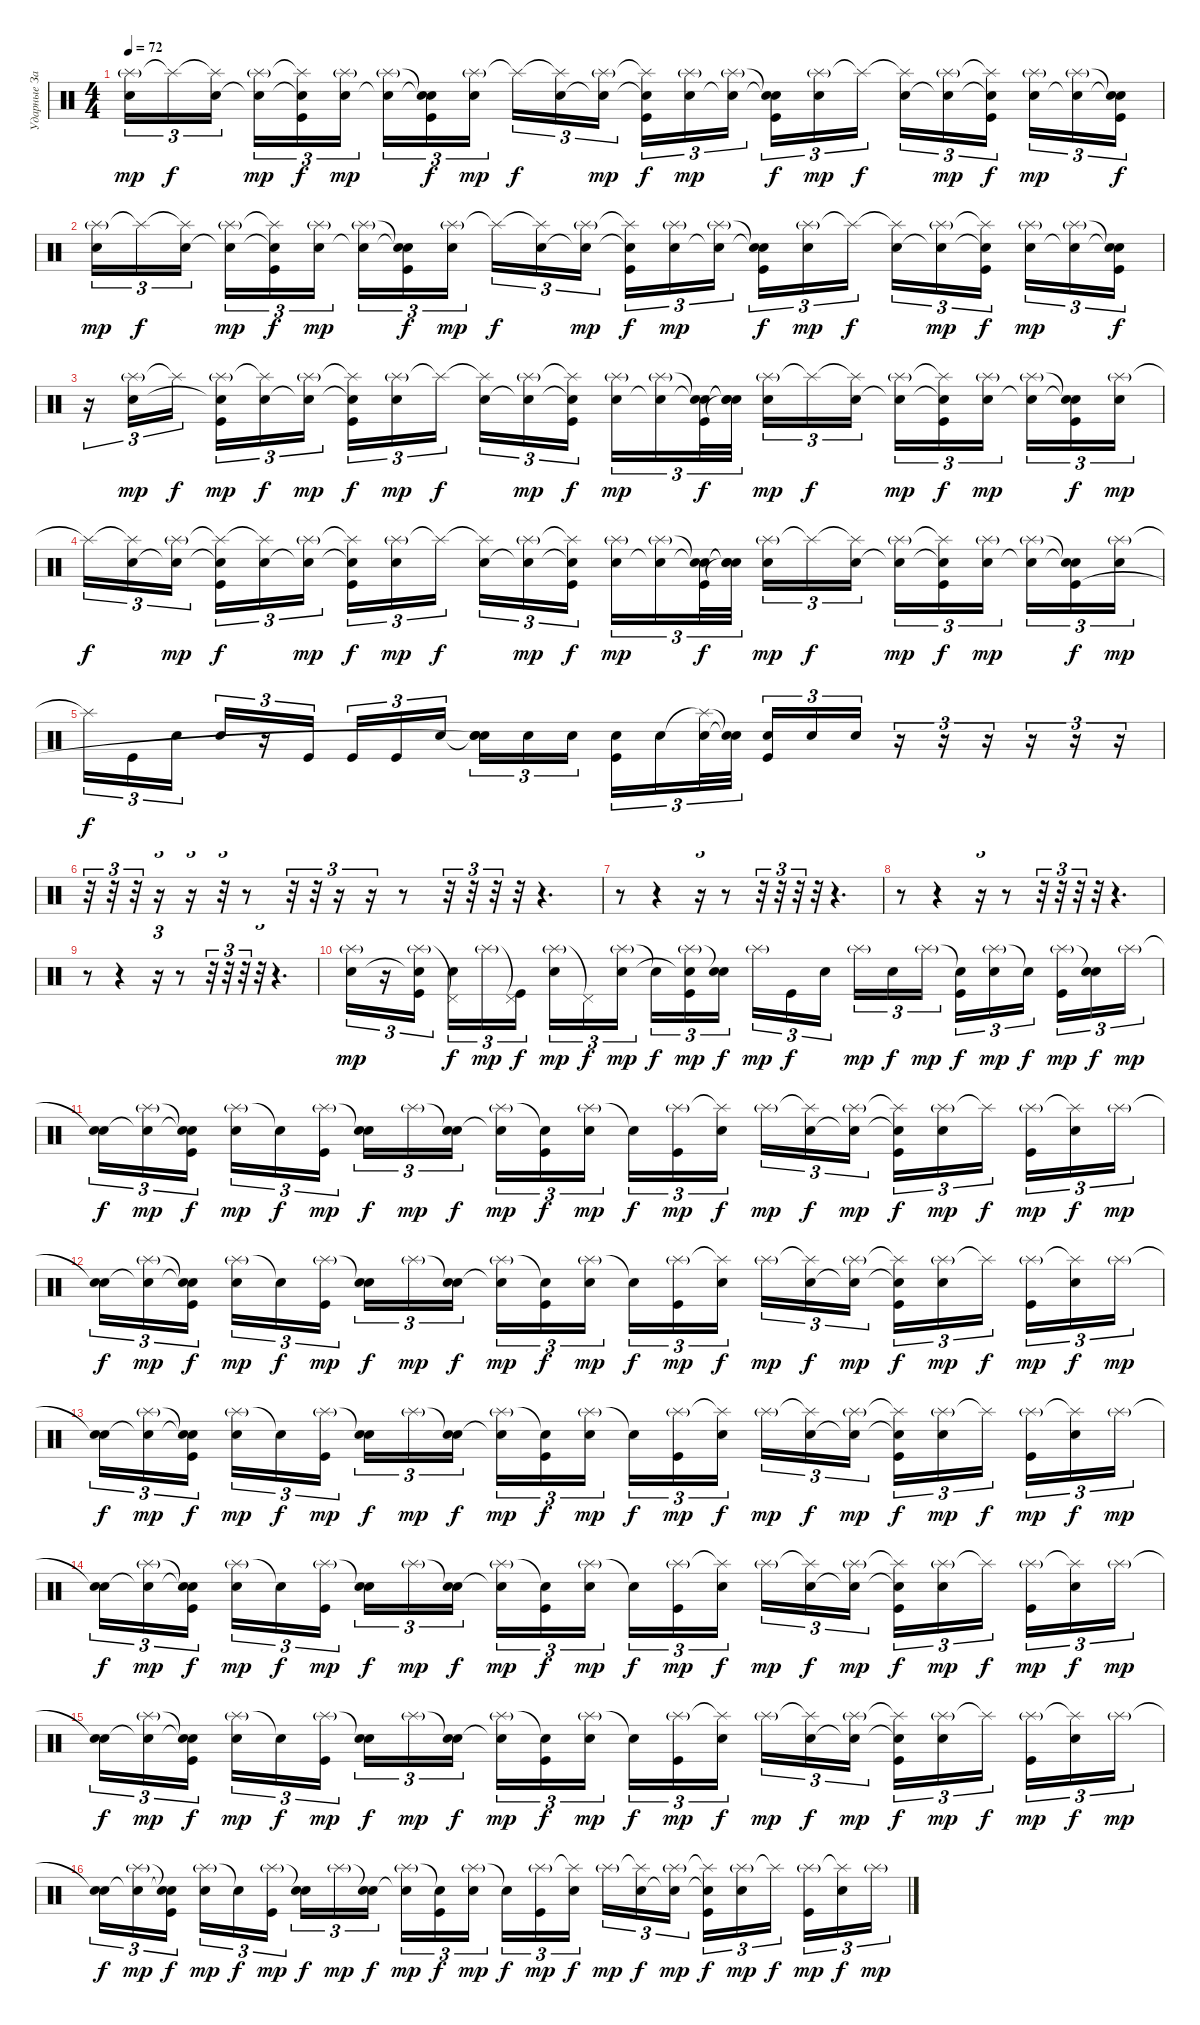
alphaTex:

\track ("Ударные Запарили(" "Ударные За") {instrument percussion}
\staff {score}
\articulation defaults
\ts (4 4)
\tempo 72
\clef neutral
\ks c
("Splash (hit)"{g} "Snare (hit) 2").16{tu (3 2) dy mp} "Splash (hit)"{t}.16{tu (3 2) dy f} ("Splash (hit)"{t} "Snare (hit) 2").16{tu (3 2) beam splitsecondary} ("Splash (hit)"{g} "Snare (hit) 2"{t}).16{tu (3 2) dy mp} ("Splash (hit)"{t} "Snare (hit) 2"{t} "Kick (hit)").16{tu (3 2) dy f} ("Splash (hit)"{g} "Snare (hit) 2").16{tu (3 2) dy mp} ("Splash (hit)"{g} "Snare (hit) 2"{t}).16{tu (3 2)} ("Snare (hit)"{t} "Snare (hit) 2"{t} "Kick (hit)").16{tu (3 2) dy f} ("Splash (hit)"{g} "Snare (hit) 2").16{tu (3 2) dy mp beam splitsecondary} "Splash (hit)"{t}.16{tu (3 2) dy f} ("Splash (hit)"{t} "Snare (hit) 2").16{tu (3 2)} ("Splash (hit)"{g} "Snare (hit) 2"{t}).16{tu (3 2) dy mp} ("Splash (hit)"{t} "Snare (hit) 2"{t} "Kick (hit)").16{tu (3 2) dy f} ("Splash (hit)"{g} "Snare (hit) 2").16{tu (3 2) dy mp} ("Splash (hit)"{g} "Snare (hit) 2"{t}).16{tu (3 2) beam splitsecondary} ("Snare (hit)"{t} "Snare (hit) 2"{t} "Kick (hit)").16{tu (3 2) dy f} ("Splash (hit)"{g} "Snare (hit) 2").16{tu (3 2) dy mp} "Splash (hit)"{t}.16{tu (3 2) dy f} ("Splash (hit)"{t} "Snare (hit) 2").16{tu (3 2)} ("Splash (hit)"{g} "Snare (hit) 2"{t}).16{tu (3 2) dy mp} ("Splash (hit)"{t} "Snare (hit) 2"{t} "Kick (hit)").16{tu (3 2) dy f beam splitsecondary} ("Splash (hit)"{g} "Snare (hit) 2").16{tu (3 2) dy mp} ("Splash (hit)"{g} "Snare (hit) 2"{t}).16{tu (3 2)} ("Snare (hit)"{t} "Snare (hit) 2"{t} "Kick (hit)").16{tu (3 2) dy f} |
("Splash (hit)"{g} "Snare (hit) 2").16{tu (3 2) dy mp} "Splash (hit)"{t}.16{tu (3 2) dy f} ("Splash (hit)"{t} "Snare (hit) 2").16{tu (3 2) beam splitsecondary} ("Splash (hit)"{g} "Snare (hit) 2"{t}).16{tu (3 2) dy mp} ("Splash (hit)"{t} "Snare (hit) 2"{t} "Kick (hit)").16{tu (3 2) dy f} ("Splash (hit)"{g} "Snare (hit) 2").16{tu (3 2) dy mp} ("Splash (hit)"{g} "Snare (hit) 2"{t}).16{tu (3 2)} ("Snare (hit)"{t} "Snare (hit) 2"{t} "Kick (hit)").16{tu (3 2) dy f} ("Splash (hit)"{g} "Snare (hit) 2").16{tu (3 2) dy mp beam splitsecondary} "Splash (hit)"{t}.16{tu (3 2) dy f} ("Splash (hit)"{t} "Snare (hit) 2").16{tu (3 2)} ("Splash (hit)"{g} "Snare (hit) 2"{t}).16{tu (3 2) dy mp} ("Splash (hit)"{t} "Snare (hit) 2"{t} "Kick (hit)").16{tu (3 2) dy f} ("Splash (hit)"{g} "Snare (hit) 2").16{tu (3 2) dy mp} ("Splash (hit)"{g} "Snare (hit) 2"{t}).16{tu (3 2) beam splitsecondary} ("Snare (hit)"{t} "Snare (hit) 2"{t} "Kick (hit)").16{tu (3 2) dy f} ("Splash (hit)"{g} "Snare (hit) 2").16{tu (3 2) dy mp} "Splash (hit)"{t}.16{tu (3 2) dy f} ("Splash (hit)"{t} "Snare (hit) 2").16{tu (3 2)} ("Splash (hit)"{g} "Snare (hit) 2"{t}).16{tu (3 2) dy mp} ("Splash (hit)"{t} "Snare (hit) 2"{t} "Kick (hit)").16{tu (3 2) dy f beam splitsecondary} ("Splash (hit)"{g} "Snare (hit) 2").16{tu (3 2) dy mp} ("Splash (hit)"{g} "Snare (hit) 2"{t}).16{tu (3 2)} ("Snare (hit)"{t} "Snare (hit) 2"{t} "Kick (hit)").16{tu (3 2) dy f} |
r.16{tu (3 2)} ("Splash (hit)"{g} "Snare (hit) 2").16{tu (3 2) dy mp} "Splash (hit)"{t}.16{tu (3 2) dy f beam splitsecondary} ("Splash (hit)"{g} "Snare (hit) 2"{t} "Kick (hit)").16{tu (3 2) dy mp} ("Splash (hit)"{t} "Snare (hit) 2").16{tu (3 2) dy f} ("Splash (hit)"{g} "Snare (hit) 2"{t}).16{tu (3 2) dy mp} ("Splash (hit)"{t} "Snare (hit) 2"{t} "Kick (hit)").16{tu (3 2) dy f} ("Splash (hit)"{g} "Snare (hit) 2").16{tu (3 2) dy mp} "Splash (hit)"{t}.16{tu (3 2) dy f beam splitsecondary} ("Splash (hit)"{t} "Snare (hit) 2").16{tu (3 2)} ("Splash (hit)"{g} "Snare (hit) 2"{t}).16{tu (3 2) dy mp} ("Splash (hit)"{t} "Snare (hit) 2"{t} "Kick (hit)").16{tu (3 2) dy f} ("Splash (hit)"{g} "Snare (hit) 2").16{tu (3 2) dy mp} ("Splash (hit)"{g} "Snare (hit) 2"{t}).16{tu (3 2)} ("Snare (hit)"{t} "Snare (hit) 2"{t} "Kick (hit)").32{tu (3 2) dy f} ("Snare (hit)"{t} "Snare (hit)"{t} "Snare (hit)"{t}).32{tu (3 2) beam splitsecondary} ("Splash (hit)"{g} "Snare (hit) 2").16{tu (3 2) dy mp} "Splash (hit)"{t}.16{tu (3 2) dy f} ("Splash (hit)"{t} "Snare (hit) 2").16{tu (3 2)} ("Splash (hit)"{g} "Snare (hit) 2"{t}).16{tu (3 2) dy mp} ("Splash (hit)"{t} "Snare (hit) 2"{t} "Kick (hit)").16{tu (3 2) dy f} ("Splash (hit)"{g} "Snare (hit) 2").16{tu (3 2) dy mp beam splitsecondary} ("Splash (hit)"{g} "Snare (hit) 2"{t}).16{tu (3 2)} ("Snare (hit)"{t} "Snare (hit) 2"{t} "Kick (hit)").16{tu (3 2) dy f} ("Splash (hit)"{g} "Snare (hit) 2").16{tu (3 2) dy mp} |
"Splash (hit)"{t}.16{tu (3 2) dy f} ("Splash (hit)"{t} "Snare (hit) 2").16{tu (3 2)} ("Splash (hit)"{g} "Snare (hit) 2"{t}).16{tu (3 2) dy mp beam splitsecondary} ("Splash (hit)"{t} "Snare (hit) 2"{t} "Kick (hit)").16{tu (3 2) dy f} ("Splash (hit)"{t} "Snare (hit) 2").16{tu (3 2)} ("Splash (hit)"{g} "Snare (hit) 2"{t}).16{tu (3 2) dy mp} ("Splash (hit)"{t} "Snare (hit) 2"{t} "Kick (hit)").16{tu (3 2) dy f} ("Splash (hit)"{g} "Snare (hit) 2").16{tu (3 2) dy mp} "Splash (hit)"{t}.16{tu (3 2) dy f beam splitsecondary} ("Splash (hit)"{t} "Snare (hit) 2").16{tu (3 2)} ("Splash (hit)"{g} "Snare (hit) 2"{t}).16{tu (3 2) dy mp} ("Splash (hit)"{t} "Snare (hit) 2"{t} "Kick (hit)").16{tu (3 2) dy f} ("Splash (hit)"{g} "Snare (hit) 2").16{tu (3 2) dy mp} ("Splash (hit)"{g} "Snare (hit) 2"{t}).16{tu (3 2)} ("Snare (hit)"{t} "Snare (hit) 2"{t} "Kick (hit)").32{tu (3 2) dy f} ("Snare (hit)"{t} "Snare (hit)"{t} "Snare (hit)"{t}).32{tu (3 2) beam splitsecondary} ("Splash (hit)"{g} "Snare (hit) 2").16{tu (3 2) dy mp} "Splash (hit)"{t}.16{tu (3 2) dy f} ("Splash (hit)"{t} "Snare (hit) 2").16{tu (3 2)} ("Splash (hit)"{g} "Snare (hit) 2"{t}).16{tu (3 2) dy mp} ("Splash (hit)"{t} "Snare (hit) 2"{t} "Kick (hit)").16{tu (3 2) dy f} ("Splash (hit)"{g} "Snare (hit) 2").16{tu (3 2) dy mp beam splitsecondary} ("Splash (hit)"{g} "Snare (hit) 2"{t}).16{tu (3 2)} ("Snare (hit)"{t} "Snare (hit) 2"{t} "Kick (hit)").16{tu (3 2) dy f} ("Splash (hit)"{g} "Snare (hit) 2").16{tu (3 2) dy mp} |
"Splash (hit)"{t}.16{tu (3 2) dy f} "Kick (hit)".16{tu (3 2)} "Snare (hit) 2".16{tu (3 2) beam splitsecondary} "Snare (hit) 2".16{tu (3 2)} r.16{tu (3 2)} "Kick (hit)".16{tu (3 2)} "Kick (hit)".16{tu (3 2)} "Kick (hit)".16{tu (3 2)} "Snare (hit) 2".16{tu (3 2) beam splitsecondary} ("Snare (hit)"{t} "Snare (hit) 2" "Snare (hit)"{t}).16{tu (3 2)} "Snare (hit) 2".16{tu (3 2)} "Snare (hit) 2".16{tu (3 2)} ("Snare (hit) 2" "Kick (hit)").16{tu (3 2)} "Snare (hit) 2".16{tu (3 2)} ("Splash (hit)"{t} "Snare (hit) 2").32{tu (3 2)} ("Snare (hit)"{t} "Snare (hit)"{t}).32{tu (3 2) beam splitsecondary} ("Snare (hit) 2" "Kick (hit)").16{tu (3 2)} "Snare (hit) 2".16{tu (3 2)} "Snare (hit) 2".16{tu (3 2)} r.16{tu (3 2)} r.16{tu (3 2)} r.16{tu (3 2)} r.16{tu (3 2)} r.16{tu (3 2)} r.16{tu (3 2)} |
r.32{tu (3 2)} r.32{tu (3 2)} r.32{tu (3 2)} r.16{tu (3 2)} r.16{tu (3 2)} r.32{tu (3 2)} r.8 r.32{tu (3 2)} r.32{tu (3 2)} r.16{tu (3 2)} r.16{tu (3 2)} r.8 r.32{tu (3 2)} r.32{tu (3 2)} r.32{tu (3 2)} r.32{tu (3 2)} r.4{d} |
r.8 r.4 r.16{tu (3 2)} r.8 r.32{tu (3 2)} r.32{tu (3 2)} r.32{tu (3 2)} r.32{tu (3 2)} r.4{d} |
r.8 r.4 r.16{tu (3 2)} r.8 r.32{tu (3 2)} r.32{tu (3 2)} r.32{tu (3 2)} r.32{tu (3 2)} r.4{d} |
r.8 r.4 r.16{tu (3 2)} r.8 r.32{tu (3 2)} r.32{tu (3 2)} r.32{tu (3 2)} r.32{tu (3 2)} r.4{d} |
("Splash (hit)"{g} "Snare (hit) 2").16{tu (3 2) dy mp} r.16{tu (3 2)} ("Splash (hit)"{g} "Snare (hit) 2"{t} "Kick (hit)").16{tu (3 2) beam splitsecondary} ("Pedal Hi-Hat (hit)"{t} "Snare (hit) 2").16{tu (3 2) dy f} "Splash (hit)"{g}.16{tu (3 2) dy mp} ("Pedal Hi-Hat (hit)"{t} "Kick (hit)").16{tu (3 2) dy f} ("Splash (hit)"{g} "Snare (hit) 2").16{tu (3 2) dy mp} "Pedal Hi-Hat (hit)"{t}.16{tu (3 2) dy f} ("Splash (hit)"{g} "Snare (hit) 2").16{tu (3 2) dy mp beam splitsecondary} "Snare (hit) 2"{t}.16{tu (3 2) dy f} ("Splash (hit)"{g} "Snare (hit) 2"{t} "Kick (hit)").16{tu (3 2) dy mp} ("Snare (hit)"{t} "Snare (hit) 2").16{tu (3 2) dy f} "Splash (hit)"{g}.16{tu (3 2) dy mp} "Kick (hit)".16{tu (3 2) dy f} "Snare (hit) 2".16{tu (3 2) beam splitsecondary} "Splash (hit)"{g}.16{tu (3 2) dy mp} "Snare (hit) 2".16{tu (3 2) dy f} "Splash (hit)"{g}.16{tu (3 2) dy mp} ("Snare (hit) 2"{t} "Kick (hit)").16{tu (3 2) dy f} ("Splash (hit)"{g} "Snare (hit) 2").16{tu (3 2) dy mp} "Snare (hit)"{t}.16{tu (3 2) dy f beam splitsecondary} ("Splash (hit)"{g} "Kick (hit)").16{tu (3 2) dy mp} ("Snare (hit)"{t} "Snare (hit) 2").16{tu (3 2) dy f} "Splash (hit)"{g}.16{tu (3 2) dy mp} |
("Snare (hit)"{t} "Snare (hit) 2").16{tu (3 2) dy f} ("Splash (hit)"{g} "Snare (hit) 2"{t}).16{tu (3 2) dy mp} ("Snare (hit)"{t} "Snare (hit) 2"{t} "Kick (hit)").16{tu (3 2) dy f beam splitsecondary} ("Splash (hit)"{g} "Snare (hit) 2").16{tu (3 2) dy mp} "Snare (hit)"{t}.16{tu (3 2) dy f} ("Splash (hit)"{g} "Kick (hit)").16{tu (3 2) dy mp} ("Snare (hit)"{t} "Snare (hit) 2").16{tu (3 2) dy f} "Splash (hit)"{g}.16{tu (3 2) dy mp} ("Snare (hit)"{t} "Snare (hit) 2").16{tu (3 2) dy f beam splitsecondary} ("Splash (hit)"{g} "Snare (hit) 2"{t}).16{tu (3 2) dy mp} ("Snare (hit) 2"{t} "Kick (hit)").16{tu (3 2) dy f} ("Splash (hit)"{g} "Snare (hit) 2").16{tu (3 2) dy mp} "Snare (hit)"{t}.16{tu (3 2) dy f} ("Splash (hit)"{g} "Kick (hit)").16{tu (3 2) dy mp} ("Splash (hit)"{t} "Snare (hit) 2").16{tu (3 2) dy f beam splitsecondary} "Splash (hit)"{g}.16{tu (3 2) dy mp} ("Splash (hit)"{t} "Snare (hit) 2").16{tu (3 2) dy f} ("Splash (hit)"{g} "Snare (hit) 2"{t}).16{tu (3 2) dy mp} ("Splash (hit)"{t} "Snare (hit) 2"{t} "Kick (hit)").16{tu (3 2) dy f} ("Splash (hit)"{g} "Snare (hit) 2").16{tu (3 2) dy mp} "Splash (hit)"{t}.16{tu (3 2) dy f beam splitsecondary} ("Splash (hit)"{g} "Kick (hit)").16{tu (3 2) dy mp} ("Splash (hit)"{t} "Snare (hit) 2").16{tu (3 2) dy f} "Splash (hit)"{g}.16{tu (3 2) dy mp} |
("Snare (hit)"{t} "Snare (hit) 2").16{tu (3 2) dy f} ("Splash (hit)"{g} "Snare (hit) 2"{t}).16{tu (3 2) dy mp} ("Snare (hit)"{t} "Snare (hit) 2"{t} "Kick (hit)").16{tu (3 2) dy f beam splitsecondary} ("Splash (hit)"{g} "Snare (hit) 2").16{tu (3 2) dy mp} "Snare (hit)"{t}.16{tu (3 2) dy f} ("Splash (hit)"{g} "Kick (hit)").16{tu (3 2) dy mp} ("Snare (hit)"{t} "Snare (hit) 2").16{tu (3 2) dy f} "Splash (hit)"{g}.16{tu (3 2) dy mp} ("Snare (hit)"{t} "Snare (hit) 2").16{tu (3 2) dy f beam splitsecondary} ("Splash (hit)"{g} "Snare (hit) 2"{t}).16{tu (3 2) dy mp} ("Snare (hit) 2"{t} "Kick (hit)").16{tu (3 2) dy f} ("Splash (hit)"{g} "Snare (hit) 2").16{tu (3 2) dy mp} "Snare (hit)"{t}.16{tu (3 2) dy f} ("Splash (hit)"{g} "Kick (hit)").16{tu (3 2) dy mp} ("Splash (hit)"{t} "Snare (hit) 2").16{tu (3 2) dy f beam splitsecondary} "Splash (hit)"{g}.16{tu (3 2) dy mp} ("Splash (hit)"{t} "Snare (hit) 2").16{tu (3 2) dy f} ("Splash (hit)"{g} "Snare (hit) 2"{t}).16{tu (3 2) dy mp} ("Splash (hit)"{t} "Snare (hit) 2"{t} "Kick (hit)").16{tu (3 2) dy f} ("Splash (hit)"{g} "Snare (hit) 2").16{tu (3 2) dy mp} "Splash (hit)"{t}.16{tu (3 2) dy f beam splitsecondary} ("Splash (hit)"{g} "Kick (hit)").16{tu (3 2) dy mp} ("Splash (hit)"{t} "Snare (hit) 2").16{tu (3 2) dy f} "Splash (hit)"{g}.16{tu (3 2) dy mp} |
("Snare (hit)"{t} "Snare (hit) 2").16{tu (3 2) dy f} ("Splash (hit)"{g} "Snare (hit) 2"{t}).16{tu (3 2) dy mp} ("Snare (hit)"{t} "Snare (hit) 2"{t} "Kick (hit)").16{tu (3 2) dy f beam splitsecondary} ("Splash (hit)"{g} "Snare (hit) 2").16{tu (3 2) dy mp} "Snare (hit)"{t}.16{tu (3 2) dy f} ("Splash (hit)"{g} "Kick (hit)").16{tu (3 2) dy mp} ("Snare (hit)"{t} "Snare (hit) 2").16{tu (3 2) dy f} "Splash (hit)"{g}.16{tu (3 2) dy mp} ("Snare (hit)"{t} "Snare (hit) 2").16{tu (3 2) dy f beam splitsecondary} ("Splash (hit)"{g} "Snare (hit) 2"{t}).16{tu (3 2) dy mp} ("Snare (hit) 2"{t} "Kick (hit)").16{tu (3 2) dy f} ("Splash (hit)"{g} "Snare (hit) 2").16{tu (3 2) dy mp} "Snare (hit)"{t}.16{tu (3 2) dy f} ("Splash (hit)"{g} "Kick (hit)").16{tu (3 2) dy mp} ("Splash (hit)"{t} "Snare (hit) 2").16{tu (3 2) dy f beam splitsecondary} "Splash (hit)"{g}.16{tu (3 2) dy mp} ("Splash (hit)"{t} "Snare (hit) 2").16{tu (3 2) dy f} ("Splash (hit)"{g} "Snare (hit) 2"{t}).16{tu (3 2) dy mp} ("Splash (hit)"{t} "Snare (hit) 2"{t} "Kick (hit)").16{tu (3 2) dy f} ("Splash (hit)"{g} "Snare (hit) 2").16{tu (3 2) dy mp} "Splash (hit)"{t}.16{tu (3 2) dy f beam splitsecondary} ("Splash (hit)"{g} "Kick (hit)").16{tu (3 2) dy mp} ("Splash (hit)"{t} "Snare (hit) 2").16{tu (3 2) dy f} "Splash (hit)"{g}.16{tu (3 2) dy mp} |
("Snare (hit)"{t} "Snare (hit) 2").16{tu (3 2) dy f} ("Splash (hit)"{g} "Snare (hit) 2"{t}).16{tu (3 2) dy mp} ("Snare (hit)"{t} "Snare (hit) 2"{t} "Kick (hit)").16{tu (3 2) dy f beam splitsecondary} ("Splash (hit)"{g} "Snare (hit) 2").16{tu (3 2) dy mp} "Snare (hit)"{t}.16{tu (3 2) dy f} ("Splash (hit)"{g} "Kick (hit)").16{tu (3 2) dy mp} ("Snare (hit)"{t} "Snare (hit) 2").16{tu (3 2) dy f} "Splash (hit)"{g}.16{tu (3 2) dy mp} ("Snare (hit)"{t} "Snare (hit) 2").16{tu (3 2) dy f beam splitsecondary} ("Splash (hit)"{g} "Snare (hit) 2"{t}).16{tu (3 2) dy mp} ("Snare (hit) 2"{t} "Kick (hit)").16{tu (3 2) dy f} ("Splash (hit)"{g} "Snare (hit) 2").16{tu (3 2) dy mp} "Snare (hit)"{t}.16{tu (3 2) dy f} ("Splash (hit)"{g} "Kick (hit)").16{tu (3 2) dy mp} ("Splash (hit)"{t} "Snare (hit) 2").16{tu (3 2) dy f beam splitsecondary} "Splash (hit)"{g}.16{tu (3 2) dy mp} ("Splash (hit)"{t} "Snare (hit) 2").16{tu (3 2) dy f} ("Splash (hit)"{g} "Snare (hit) 2"{t}).16{tu (3 2) dy mp} ("Splash (hit)"{t} "Snare (hit) 2"{t} "Kick (hit)").16{tu (3 2) dy f} ("Splash (hit)"{g} "Snare (hit) 2").16{tu (3 2) dy mp} "Splash (hit)"{t}.16{tu (3 2) dy f beam splitsecondary} ("Splash (hit)"{g} "Kick (hit)").16{tu (3 2) dy mp} ("Splash (hit)"{t} "Snare (hit) 2").16{tu (3 2) dy f} "Splash (hit)"{g}.16{tu (3 2) dy mp} |
("Snare (hit)"{t} "Snare (hit) 2").16{tu (3 2) dy f} ("Splash (hit)"{g} "Snare (hit) 2"{t}).16{tu (3 2) dy mp} ("Snare (hit)"{t} "Snare (hit) 2"{t} "Kick (hit)").16{tu (3 2) dy f beam splitsecondary} ("Splash (hit)"{g} "Snare (hit) 2").16{tu (3 2) dy mp} "Snare (hit)"{t}.16{tu (3 2) dy f} ("Splash (hit)"{g} "Kick (hit)").16{tu (3 2) dy mp} ("Snare (hit)"{t} "Snare (hit) 2").16{tu (3 2) dy f} "Splash (hit)"{g}.16{tu (3 2) dy mp} ("Snare (hit)"{t} "Snare (hit) 2").16{tu (3 2) dy f beam splitsecondary} ("Splash (hit)"{g} "Snare (hit) 2"{t}).16{tu (3 2) dy mp} ("Snare (hit) 2"{t} "Kick (hit)").16{tu (3 2) dy f} ("Splash (hit)"{g} "Snare (hit) 2").16{tu (3 2) dy mp} "Snare (hit)"{t}.16{tu (3 2) dy f} ("Splash (hit)"{g} "Kick (hit)").16{tu (3 2) dy mp} ("Splash (hit)"{t} "Snare (hit) 2").16{tu (3 2) dy f beam splitsecondary} "Splash (hit)"{g}.16{tu (3 2) dy mp} ("Splash (hit)"{t} "Snare (hit) 2").16{tu (3 2) dy f} ("Splash (hit)"{g} "Snare (hit) 2"{t}).16{tu (3 2) dy mp} ("Splash (hit)"{t} "Snare (hit) 2"{t} "Kick (hit)").16{tu (3 2) dy f} ("Splash (hit)"{g} "Snare (hit) 2").16{tu (3 2) dy mp} "Splash (hit)"{t}.16{tu (3 2) dy f beam splitsecondary} ("Splash (hit)"{g} "Kick (hit)").16{tu (3 2) dy mp} ("Splash (hit)"{t} "Snare (hit) 2").16{tu (3 2) dy f} "Splash (hit)"{g}.16{tu (3 2) dy mp} |
("Snare (hit)"{t} "Snare (hit) 2").16{tu (3 2) dy f} ("Splash (hit)"{g} "Snare (hit) 2"{t}).16{tu (3 2) dy mp} ("Snare (hit)"{t} "Snare (hit) 2"{t} "Kick (hit)").16{tu (3 2) dy f beam splitsecondary} ("Splash (hit)"{g} "Snare (hit) 2").16{tu (3 2) dy mp} "Snare (hit)"{t}.16{tu (3 2) dy f} ("Splash (hit)"{g} "Kick (hit)").16{tu (3 2) dy mp} ("Snare (hit)"{t} "Snare (hit) 2").16{tu (3 2) dy f} "Splash (hit)"{g}.16{tu (3 2) dy mp} ("Snare (hit)"{t} "Snare (hit) 2").16{tu (3 2) dy f beam splitsecondary} ("Splash (hit)"{g} "Snare (hit) 2"{t}).16{tu (3 2) dy mp} ("Snare (hit) 2"{t} "Kick (hit)").16{tu (3 2) dy f} ("Splash (hit)"{g} "Snare (hit) 2").16{tu (3 2) dy mp} "Snare (hit)"{t}.16{tu (3 2) dy f} ("Splash (hit)"{g} "Kick (hit)").16{tu (3 2) dy mp} ("Splash (hit)"{t} "Snare (hit) 2").16{tu (3 2) dy f beam splitsecondary} "Splash (hit)"{g}.16{tu (3 2) dy mp} ("Splash (hit)"{t} "Snare (hit) 2").16{tu (3 2) dy f} ("Splash (hit)"{g} "Snare (hit) 2"{t}).16{tu (3 2) dy mp} ("Splash (hit)"{t} "Snare (hit) 2"{t} "Kick (hit)").16{tu (3 2) dy f} ("Splash (hit)"{g} "Snare (hit) 2").16{tu (3 2) dy mp} "Splash (hit)"{t}.16{tu (3 2) dy f beam splitsecondary} ("Splash (hit)"{g} "Kick (hit)").16{tu (3 2) dy mp} ("Splash (hit)"{t} "Snare (hit) 2").16{tu (3 2) dy f} "Splash (hit)"{g}.16{tu (3 2) dy mp}
